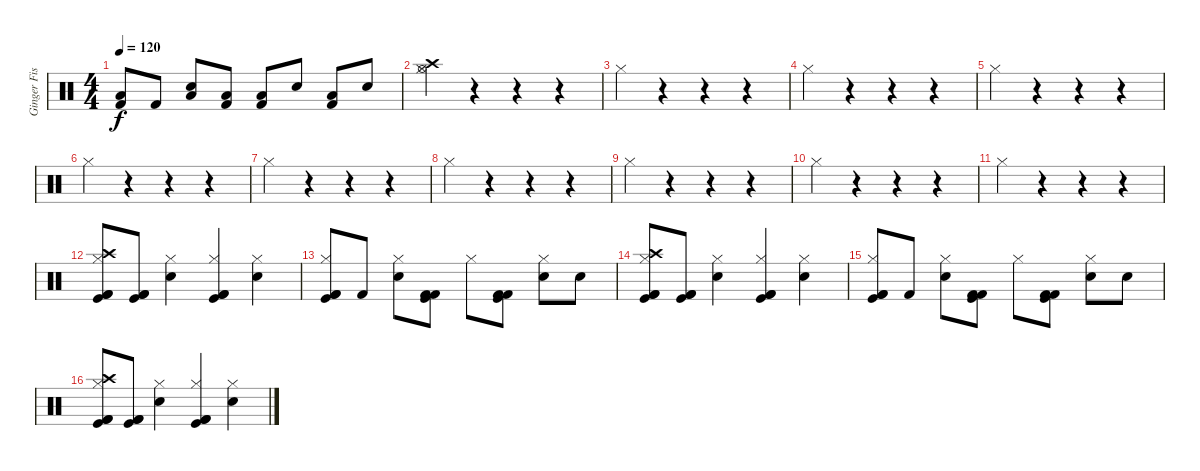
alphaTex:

\track ("Ginger Fish" "Ginger Fis") {instrument percussion}
\staff {score}
\articulation defaults
\ts (4 4)
\tempo 120
\clef neutral
\ks c
("Low Tom (hit)" "Kick (hit) 2").8{dy f} "Kick (hit) 2".8 ("Low Tom (hit)" "Electric Snare (hit)").8 ("Low Tom (hit)" "Kick (hit) 2").8 ("Low Tom (hit)" "Kick (hit) 2").8 "Electric Snare (hit)".8 ("Low Tom (hit)" "Kick (hit) 2").8 "Electric Snare (hit)".8 |
("Crash high (hit)" "Hi-Hat (open)" "Hi-Hat (closed)").4 r.4 r.4 r.4 |
"Hi-Hat (closed)".4 r.4 r.4 r.4 |
"Hi-Hat (closed)".4 r.4 r.4 r.4 |
"Hi-Hat (closed)".4 r.4 r.4 r.4 |
"Hi-Hat (closed)".4 r.4 r.4 r.4 |
"Hi-Hat (closed)".4 r.4 r.4 r.4 |
"Hi-Hat (closed)".4 r.4 r.4 r.4 |
"Hi-Hat (closed)".4 r.4 r.4 r.4 |
"Hi-Hat (closed)".4 r.4 r.4 r.4 |
"Hi-Hat (closed)".4 r.4 r.4 r.4 |
("Crash high (hit)" "Hi-Hat (closed)" "Kick (hit) 2" "Kick (hit)" "Kick (hit) 2").8 ("Kick (hit) 2" "Kick (hit)" "Kick (hit) 2").8 ("Hi-Hat (closed)" "Electric Snare (hit)").4 ("Hi-Hat (closed)" "Kick (hit) 2" "Kick (hit)" "Kick (hit) 2").4 ("Hi-Hat (closed)" "Electric Snare (hit)").4 |
("Hi-Hat (closed)" "Kick (hit) 2" "Kick (hit)" "Kick (hit) 2").8 "Kick (hit) 2".8 ("Hi-Hat (closed)" "Electric Snare (hit)").8 ("Kick (hit) 2" "Kick (hit)" "Kick (hit) 2").8 "Hi-Hat (closed)".8 ("Kick (hit) 2" "Kick (hit)" "Kick (hit) 2").8 ("Hi-Hat (closed)" "Electric Snare (hit)").8 "Electric Snare (hit)".8 |
("Crash high (hit)" "Hi-Hat (closed)" "Kick (hit) 2" "Kick (hit)" "Kick (hit) 2").8 ("Kick (hit) 2" "Kick (hit)" "Kick (hit) 2").8 ("Hi-Hat (closed)" "Electric Snare (hit)").4 ("Hi-Hat (closed)" "Kick (hit) 2" "Kick (hit)" "Kick (hit) 2").4 ("Hi-Hat (closed)" "Electric Snare (hit)").4 |
("Hi-Hat (closed)" "Kick (hit) 2" "Kick (hit)" "Kick (hit) 2").8 "Kick (hit) 2".8 ("Hi-Hat (closed)" "Electric Snare (hit)").8 ("Kick (hit) 2" "Kick (hit)" "Kick (hit) 2").8 "Hi-Hat (closed)".8 ("Kick (hit) 2" "Kick (hit)" "Kick (hit) 2").8 ("Hi-Hat (closed)" "Electric Snare (hit)").8 "Electric Snare (hit)".8 |
("Crash high (hit)" "Hi-Hat (closed)" "Kick (hit) 2" "Kick (hit)" "Kick (hit) 2").8 ("Kick (hit) 2" "Kick (hit)" "Kick (hit) 2").8 ("Hi-Hat (closed)" "Electric Snare (hit)").4 ("Hi-Hat (closed)" "Kick (hit) 2" "Kick (hit)" "Kick (hit) 2").4 ("Hi-Hat (closed)" "Electric Snare (hit)").4
